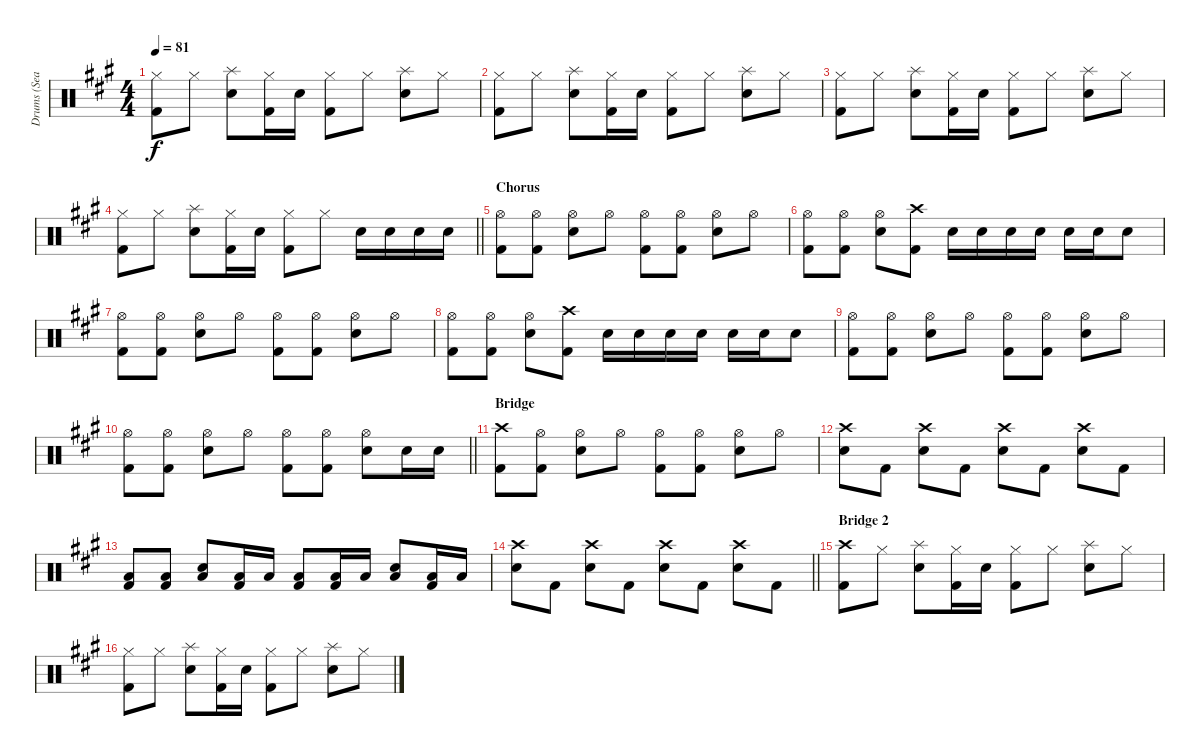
\track ("Drums (Sean)" "Drums (Sea") {instrument percussion}
\staff {score}
\articulation defaults
\ts (4 4)
\tempo 81
\clef neutral
\ks f#minor
("Hi-Hat (closed)" "Kick (hit) 2").8{dy f} "Hi-Hat (closed)".8 ("Splash (hit)" "Snare (hit) 2").8 ("Hi-Hat (closed)" "Kick (hit) 2").16 "Snare (hit) 2".16 ("Hi-Hat (closed)" "Kick (hit) 2").8 "Hi-Hat (closed)".8 ("Splash (hit)" "Snare (hit) 2").8 "Hi-Hat (closed)".8 |
("Hi-Hat (closed)" "Kick (hit) 2").8 "Hi-Hat (closed)".8 ("Splash (hit)" "Snare (hit) 2").8 ("Hi-Hat (closed)" "Kick (hit) 2").16 "Snare (hit) 2".16 ("Hi-Hat (closed)" "Kick (hit) 2").8 "Hi-Hat (closed)".8 ("Splash (hit)" "Snare (hit) 2").8 "Hi-Hat (closed)".8 |
("Hi-Hat (closed)" "Kick (hit) 2").8 "Hi-Hat (closed)".8 ("Splash (hit)" "Snare (hit) 2").8 ("Hi-Hat (closed)" "Kick (hit) 2").16 "Snare (hit) 2".16 ("Hi-Hat (closed)" "Kick (hit) 2").8 "Hi-Hat (closed)".8 ("Splash (hit)" "Snare (hit) 2").8 "Hi-Hat (closed)".8 |
\barLineRight lightlight
("Hi-Hat (closed)" "Kick (hit) 2").8 "Hi-Hat (closed)".8 ("Splash (hit)" "Snare (hit) 2").8 ("Hi-Hat (closed)" "Kick (hit) 2").16 "Snare (hit) 2".16 ("Hi-Hat (closed)" "Kick (hit) 2").8 "Hi-Hat (closed)".8 "Snare (hit) 2".16 "Snare (hit) 2".16 "Snare (hit) 2".16 "Snare (hit) 2".16 |
\section ("" "Chorus")
("Hi-Hat (open)" "Kick (hit) 2").8 ("Hi-Hat (open)" "Kick (hit) 2").8 ("Hi-Hat (open)" "Snare (hit) 2").8 "Hi-Hat (open)".8 ("Hi-Hat (open)" "Kick (hit) 2").8 ("Hi-Hat (open)" "Kick (hit) 2").8 ("Hi-Hat (open)" "Snare (hit) 2").8 "Hi-Hat (open)".8 |
("Hi-Hat (open)" "Kick (hit) 2").8 ("Hi-Hat (open)" "Kick (hit) 2").8 ("Hi-Hat (open)" "Snare (hit) 2").8 ("Crash high (hit)" "Kick (hit) 2").8 "Snare (hit) 2".16 "Snare (hit) 2".16 "Snare (hit) 2".16 "Snare (hit) 2".16 "Snare (hit) 2".16 "Snare (hit) 2".16 "Snare (hit) 2".8 |
("Hi-Hat (open)" "Kick (hit) 2").8 ("Hi-Hat (open)" "Kick (hit) 2").8 ("Hi-Hat (open)" "Snare (hit) 2").8 "Hi-Hat (open)".8 ("Hi-Hat (open)" "Kick (hit) 2").8 ("Hi-Hat (open)" "Kick (hit) 2").8 ("Hi-Hat (open)" "Snare (hit) 2").8 "Hi-Hat (open)".8 |
("Hi-Hat (open)" "Kick (hit) 2").8 ("Hi-Hat (open)" "Kick (hit) 2").8 ("Hi-Hat (open)" "Snare (hit) 2").8 ("Crash high (hit)" "Kick (hit) 2").8 "Snare (hit) 2".16 "Snare (hit) 2".16 "Snare (hit) 2".16 "Snare (hit) 2".16 "Snare (hit) 2".16 "Snare (hit) 2".16 "Snare (hit) 2".8 |
("Hi-Hat (open)" "Kick (hit) 2").8 ("Hi-Hat (open)" "Kick (hit) 2").8 ("Hi-Hat (open)" "Snare (hit) 2").8 "Hi-Hat (open)".8 ("Hi-Hat (open)" "Kick (hit) 2").8 ("Hi-Hat (open)" "Kick (hit) 2").8 ("Hi-Hat (open)" "Snare (hit) 2").8 "Hi-Hat (open)".8 |
\barLineRight lightlight
("Hi-Hat (open)" "Kick (hit) 2").8 ("Hi-Hat (open)" "Kick (hit) 2").8 ("Hi-Hat (open)" "Snare (hit) 2").8 "Hi-Hat (open)".8 ("Hi-Hat (open)" "Kick (hit) 2").8 ("Hi-Hat (open)" "Kick (hit) 2").8 ("Hi-Hat (open)" "Snare (hit) 2").8 "Snare (hit) 2".16 "Snare (hit) 2".16 |
\section ("" "Bridge")
("Crash high (hit)" "Kick (hit) 2").8 ("Hi-Hat (open)" "Kick (hit) 2").8 ("Hi-Hat (open)" "Snare (hit) 2").8 "Hi-Hat (open)".8 ("Hi-Hat (open)" "Kick (hit) 2").8 ("Hi-Hat (open)" "Kick (hit) 2").8 ("Hi-Hat (open)" "Snare (hit) 2").8 "Hi-Hat (open)".8 |
("Crash high (hit)" "Snare (hit) 2").8 "Kick (hit) 2".8 ("Crash high (hit)" "Snare (hit) 2").8 "Kick (hit) 2".8 ("Crash high (hit)" "Snare (hit) 2").8 "Kick (hit) 2".8 ("Crash high (hit)" "Snare (hit) 2").8 "Kick (hit) 2".8 |
("Low Floor Tom (hit)" "Kick (hit) 2").8 ("Low Floor Tom (hit)" "Kick (hit) 2").8 ("Low Floor Tom (hit)" "Snare (hit) 2").8 ("Low Floor Tom (hit)" "Kick (hit) 2").16 "Low Floor Tom (hit)".16 ("Low Floor Tom (hit)" "Kick (hit) 2").8 ("Low Floor Tom (hit)" "Kick (hit) 2").16 "Low Floor Tom (hit)".16 ("Low Floor Tom (hit)" "Snare (hit) 2").8 ("Low Floor Tom (hit)" "Kick (hit) 2").16 "Low Floor Tom (hit)".16 |
\barLineRight lightlight
("Crash high (hit)" "Snare (hit) 2").8 "Kick (hit) 2".8 ("Crash high (hit)" "Snare (hit) 2").8 "Kick (hit) 2".8 ("Crash high (hit)" "Snare (hit) 2").8 "Kick (hit) 2".8 ("Crash high (hit)" "Snare (hit) 2").8 "Kick (hit) 2".8 |
\section ("" "Bridge 2")
("Crash high (hit)" "Kick (hit) 2").8 "Hi-Hat (closed)".8 ("Splash (hit)" "Snare (hit) 2").8 ("Hi-Hat (closed)" "Kick (hit) 2").16 "Snare (hit) 2".16 ("Hi-Hat (closed)" "Kick (hit) 2").8 "Hi-Hat (closed)".8 ("Splash (hit)" "Snare (hit) 2").8 "Hi-Hat (closed)".8 |
("Hi-Hat (closed)" "Kick (hit) 2").8 "Hi-Hat (closed)".8 ("Splash (hit)" "Snare (hit) 2").8 ("Hi-Hat (closed)" "Kick (hit) 2").16 "Snare (hit) 2".16 ("Hi-Hat (closed)" "Kick (hit) 2").8 "Hi-Hat (closed)".8 ("Splash (hit)" "Snare (hit) 2").8 "Hi-Hat (closed)".8
